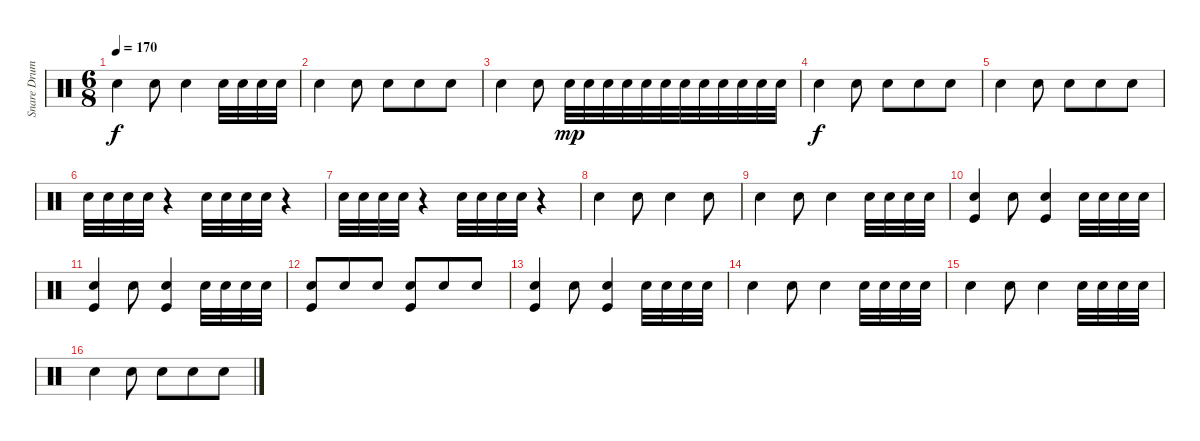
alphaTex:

\track ("Snare Drum" "Snare Drum") {instrument percussion}
\staff {score}
\articulation defaults
\ts (6 8)
\tempo 170
\clef neutral
\ks c "Snare (hit) 2".4{dy f} "Snare (hit) 2".8 "Snare (hit) 2".4 "Snare (hit) 2".32 "Snare (hit) 2".32 "Snare (hit) 2".32 "Snare (hit) 2".32
|
"Snare (hit) 2".4 "Snare (hit) 2".8 "Snare (hit) 2".8 "Snare (hit) 2".8 "Snare (hit) 2".8 |
"Snare (hit) 2".4 "Snare (hit) 2".8 "Snare (hit) 2".32{dy mp} "Snare (hit) 2".32 "Snare (hit) 2".32 "Snare (hit) 2".32 "Snare (hit) 2".32 "Snare (hit) 2".32 "Snare (hit) 2".32 "Snare (hit) 2".32 "Snare (hit) 2".32 "Snare (hit) 2".32 "Snare (hit) 2".32 "Snare (hit) 2".32 |
"Snare (hit) 2".4{dy f} "Snare (hit) 2".8 "Snare (hit) 2".8 "Snare (hit) 2".8 "Snare (hit) 2".8 |
"Snare (hit) 2".4 "Snare (hit) 2".8 "Snare (hit) 2".8 "Snare (hit) 2".8 "Snare (hit) 2".8 |
"Snare (hit) 2".32 "Snare (hit) 2".32 "Snare (hit) 2".32 "Snare (hit) 2".32 r.4 "Snare (hit) 2".32 "Snare (hit) 2".32 "Snare (hit) 2".32 "Snare (hit) 2".32 r.4 |
"Snare (hit) 2".32 "Snare (hit) 2".32 "Snare (hit) 2".32 "Snare (hit) 2".32 r.4 "Snare (hit) 2".32 "Snare (hit) 2".32 "Snare (hit) 2".32 "Snare (hit) 2".32 r.4 |
"Snare (hit) 2".4 "Snare (hit) 2".8 "Snare (hit) 2".4 "Snare (hit) 2".8 |
"Snare (hit) 2".4 "Snare (hit) 2".8 "Snare (hit) 2".4 "Snare (hit) 2".32 "Snare (hit) 2".32 "Snare (hit) 2".32 "Snare (hit) 2".32 |
("Snare (hit) 2" "Kick (hit)").4 "Snare (hit) 2".8 ("Snare (hit) 2" "Kick (hit)").4 "Snare (hit) 2".32 "Snare (hit) 2".32 "Snare (hit) 2".32 "Snare (hit) 2".32 |
("Snare (hit) 2" "Kick (hit)").4 "Snare (hit) 2".8 ("Snare (hit) 2" "Kick (hit)").4 "Snare (hit) 2".32 "Snare (hit) 2".32 "Snare (hit) 2".32 "Snare (hit) 2".32 |
("Snare (hit) 2" "Kick (hit)").8 "Snare (hit) 2".8 "Snare (hit) 2".8 ("Snare (hit) 2" "Kick (hit)").8 "Snare (hit) 2".8 "Snare (hit) 2".8 |
("Snare (hit) 2" "Kick (hit)").4 "Snare (hit) 2".8 ("Snare (hit) 2" "Kick (hit)").4 "Snare (hit) 2".32 "Snare (hit) 2".32 "Snare (hit) 2".32 "Snare (hit) 2".32 |
"Snare (hit) 2".4 "Snare (hit) 2".8 "Snare (hit) 2".4 "Snare (hit) 2".32 "Snare (hit) 2".32 "Snare (hit) 2".32 "Snare (hit) 2".32 |
"Snare (hit) 2".4 "Snare (hit) 2".8 "Snare (hit) 2".4 "Snare (hit) 2".32 "Snare (hit) 2".32 "Snare (hit) 2".32 "Snare (hit) 2".32 |
"Snare (hit) 2".4 "Snare (hit) 2".8 "Snare (hit) 2".8 "Snare (hit) 2".8 "Snare (hit) 2".8
